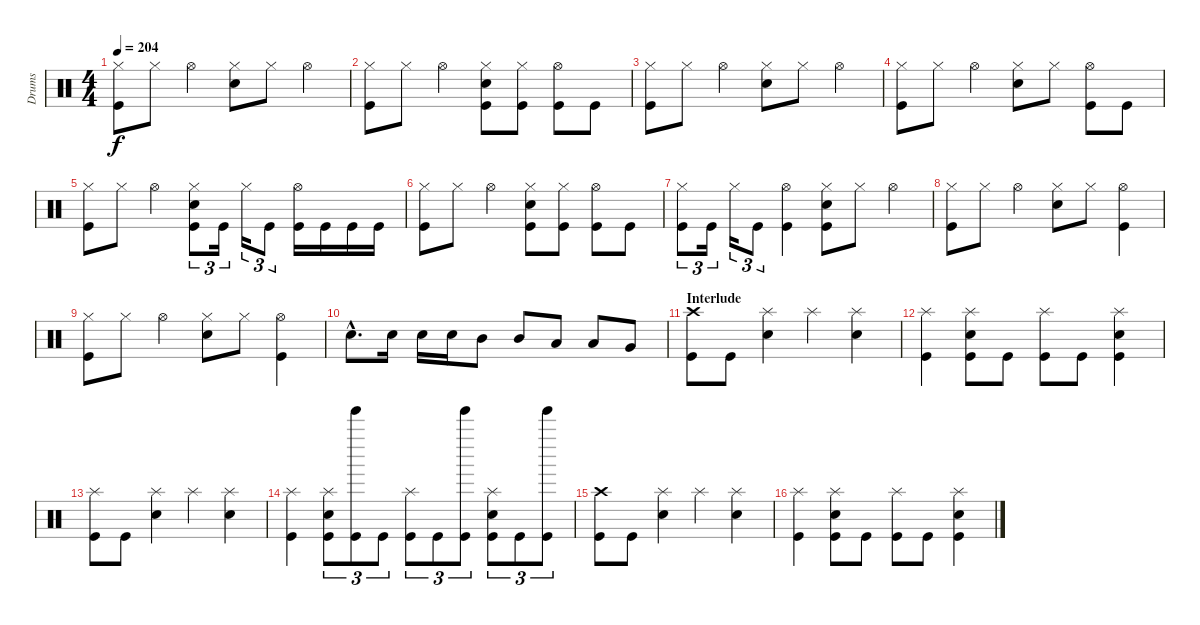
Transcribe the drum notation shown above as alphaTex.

\track ("Drums" "Drums") {instrument percussion}
\staff {score}
\articulation defaults
\ts (4 4)
\tempo 204
\clef neutral
\ks c
("Hi-Hat (closed)" "Kick (hit)").8{dy f} "Hi-Hat (closed)".8 "Hi-Hat (open)".4 ("Hi-Hat (closed)" "Electric Snare (hit)").8 "Hi-Hat (closed)".8 "Hi-Hat (open)".4 |
("Hi-Hat (closed)" "Kick (hit)").8 "Hi-Hat (closed)".8 "Hi-Hat (open)".4 ("Hi-Hat (closed)" "Electric Snare (hit)" "Kick (hit)").8 ("Hi-Hat (closed)" "Kick (hit)").8 ("Hi-Hat (open)" "Kick (hit)").8 "Kick (hit)".8 |
("Hi-Hat (closed)" "Kick (hit)").8 "Hi-Hat (closed)".8 "Hi-Hat (open)".4 ("Hi-Hat (closed)" "Electric Snare (hit)").8 "Hi-Hat (closed)".8 "Hi-Hat (open)".4 |
("Hi-Hat (closed)" "Kick (hit)").8 "Hi-Hat (closed)".8 "Hi-Hat (open)".4 ("Hi-Hat (closed)" "Electric Snare (hit)").8 "Hi-Hat (closed)".8 ("Hi-Hat (open)" "Kick (hit)").8 "Kick (hit)".8 |
("Hi-Hat (closed)" "Kick (hit)").8 "Hi-Hat (closed)".8 "Hi-Hat (open)".4 ("Hi-Hat (closed)" "Electric Snare (hit)" "Kick (hit)").8{tu (3 2)} "Kick (hit)".16{tu (3 2)} "Hi-Hat (closed)".16{tu (3 2)} "Kick (hit)".8{tu (3 2)} ("Hi-Hat (open)" "Kick (hit)").16 "Kick (hit)".16 "Kick (hit)".16 "Kick (hit)".16 |
("Hi-Hat (closed)" "Kick (hit)").8 "Hi-Hat (closed)".8 "Hi-Hat (open)".4 ("Hi-Hat (closed)" "Electric Snare (hit)" "Kick (hit)").8 ("Hi-Hat (closed)" "Kick (hit)").8 ("Hi-Hat (open)" "Kick (hit)").8 "Kick (hit)".8 |
("Hi-Hat (closed)" "Kick (hit)").8{tu (3 2)} "Kick (hit)".16{tu (3 2)} "Hi-Hat (closed)".16{tu (3 2)} "Kick (hit)".8{tu (3 2)} ("Hi-Hat (open)" "Kick (hit)").4 ("Hi-Hat (closed)" "Electric Snare (hit)" "Kick (hit)").8 "Hi-Hat (closed)".8 "Hi-Hat (open)".4 |
("Hi-Hat (closed)" "Kick (hit)").8 "Hi-Hat (closed)".8 "Hi-Hat (open)".4 ("Hi-Hat (closed)" "Electric Snare (hit)").8 "Hi-Hat (closed)".8 ("Hi-Hat (open)" "Kick (hit)").4 |
("Hi-Hat (closed)" "Kick (hit)").8 "Hi-Hat (closed)".8 "Hi-Hat (open)".4 ("Hi-Hat (closed)" "Electric Snare (hit)").8 "Hi-Hat (closed)".8 ("Hi-Hat (open)" "Kick (hit)").4 |
"Electric Snare (hit)"{hac}.8{d} "Electric Snare (hit)".16 "Electric Snare (hit)".16 "Electric Snare (hit)".16 "Mid Tom (hit)".8 "Mid Tom (hit)".8 "Low Tom (hit)".8 "Low Tom (hit)".8 "Very Low Tom (hit)".8 |
\section ("" "Interlude")
("Crash high (hit)" "Kick (hit)").8 "Kick (hit)".8 ("Splash (hit)" "Electric Snare (hit)").4 "Splash (hit)".4 ("Splash (hit)" "Electric Snare (hit)").4 |
("Splash (hit)" "Kick (hit)").4 ("Splash (hit)" "Electric Snare (hit)" "Kick (hit)").8 "Kick (hit)".8 ("Splash (hit)" "Kick (hit)").8 "Kick (hit)".8 ("Splash (hit)" "Electric Snare (hit)" "Kick (hit)").4 |
("Splash (hit)" "Kick (hit)").8 "Kick (hit)".8 ("Splash (hit)" "Electric Snare (hit)").4 "Splash (hit)".4 ("Splash (hit)" "Electric Snare (hit)").4 |
("Splash (hit)" "Kick (hit)").4 ("Splash (hit)" "Electric Snare (hit)" "Kick (hit)").8{tu (3 2)} ("Tinkle Bell (hit)" "Kick (hit)").8{tu (3 2)} "Kick (hit)".8{tu (3 2)} ("Splash (hit)" "Kick (hit)").8{tu (3 2)} "Kick (hit)".8{tu (3 2)} ("Tinkle Bell (hit)" "Kick (hit)").8{tu (3 2)} ("Splash (hit)" "Electric Snare (hit)" "Kick (hit)").8{tu (3 2)} "Kick (hit)".8{tu (3 2)} ("Tinkle Bell (hit)" "Kick (hit)").8{tu (3 2)} |
("Crash high (hit)" "Kick (hit)").8 "Kick (hit)".8 ("Splash (hit)" "Electric Snare (hit)").4 "Splash (hit)".4 ("Splash (hit)" "Electric Snare (hit)").4 |
("Splash (hit)" "Kick (hit)").4 ("Splash (hit)" "Electric Snare (hit)" "Kick (hit)").8 "Kick (hit)".8 ("Splash (hit)" "Kick (hit)").8 "Kick (hit)".8 ("Splash (hit)" "Electric Snare (hit)" "Kick (hit)").4
